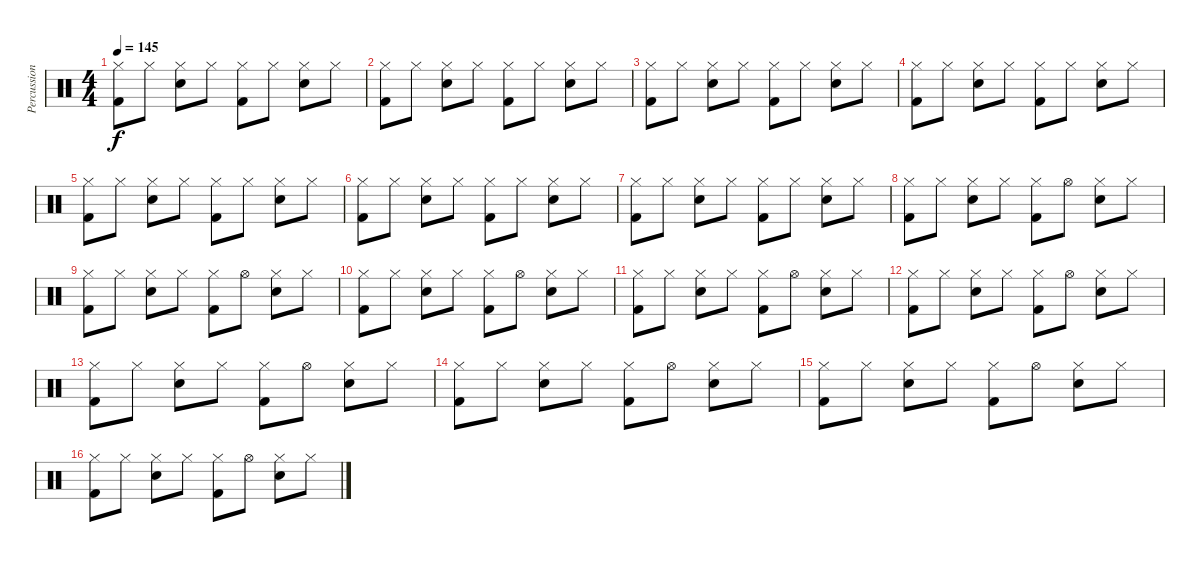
\track ("Percussion" "Percussion") {instrument percussion}
\staff {score}
\articulation defaults
\ts (4 4)
\tempo 145
\clef neutral
\ks c
("Hi-Hat (closed)" "Kick (hit) 2").8{dy f} "Hi-Hat (closed)".8 ("Hi-Hat (closed)" "Snare (hit) 2").8 "Hi-Hat (closed)".8 ("Hi-Hat (closed)" "Kick (hit) 2").8 "Hi-Hat (closed)".8 ("Hi-Hat (closed)" "Snare (hit) 2").8 "Hi-Hat (closed)".8 |
("Hi-Hat (closed)" "Kick (hit) 2").8 "Hi-Hat (closed)".8 ("Hi-Hat (closed)" "Snare (hit) 2").8 "Hi-Hat (closed)".8 ("Hi-Hat (closed)" "Kick (hit) 2").8 "Hi-Hat (closed)".8 ("Hi-Hat (closed)" "Snare (hit) 2").8 "Hi-Hat (closed)".8 |
("Hi-Hat (closed)" "Kick (hit) 2").8 "Hi-Hat (closed)".8 ("Hi-Hat (closed)" "Snare (hit) 2").8 "Hi-Hat (closed)".8 ("Hi-Hat (closed)" "Kick (hit) 2").8 "Hi-Hat (closed)".8 ("Hi-Hat (closed)" "Snare (hit) 2").8 "Hi-Hat (closed)".8 |
("Hi-Hat (closed)" "Kick (hit) 2").8 "Hi-Hat (closed)".8 ("Hi-Hat (closed)" "Snare (hit) 2").8 "Hi-Hat (closed)".8 ("Hi-Hat (closed)" "Kick (hit) 2").8 "Hi-Hat (closed)".8 ("Hi-Hat (closed)" "Snare (hit) 2").8 "Hi-Hat (closed)".8 |
("Hi-Hat (closed)" "Kick (hit) 2").8 "Hi-Hat (closed)".8 ("Hi-Hat (closed)" "Snare (hit) 2").8 "Hi-Hat (closed)".8 ("Hi-Hat (closed)" "Kick (hit) 2").8 "Hi-Hat (closed)".8 ("Hi-Hat (closed)" "Snare (hit) 2").8 "Hi-Hat (closed)".8 |
("Hi-Hat (closed)" "Kick (hit) 2").8 "Hi-Hat (closed)".8 ("Hi-Hat (closed)" "Snare (hit) 2").8 "Hi-Hat (closed)".8 ("Hi-Hat (closed)" "Kick (hit) 2").8 "Hi-Hat (closed)".8 ("Hi-Hat (closed)" "Snare (hit) 2").8 "Hi-Hat (closed)".8 |
("Hi-Hat (closed)" "Kick (hit) 2").8 "Hi-Hat (closed)".8 ("Hi-Hat (closed)" "Snare (hit) 2").8 "Hi-Hat (closed)".8 ("Hi-Hat (closed)" "Kick (hit) 2").8 "Hi-Hat (closed)".8 ("Hi-Hat (closed)" "Snare (hit) 2").8 "Hi-Hat (closed)".8 |
("Hi-Hat (closed)" "Kick (hit) 2").8 "Hi-Hat (closed)".8 ("Hi-Hat (closed)" "Snare (hit) 2").8 "Hi-Hat (closed)".8 ("Hi-Hat (closed)" "Kick (hit) 2").8 "Hi-Hat (open)".8 ("Hi-Hat (closed)" "Snare (hit) 2").8 "Hi-Hat (closed)".8 |
("Hi-Hat (closed)" "Kick (hit) 2").8 "Hi-Hat (closed)".8 ("Hi-Hat (closed)" "Snare (hit) 2").8 "Hi-Hat (closed)".8 ("Hi-Hat (closed)" "Kick (hit) 2").8 "Hi-Hat (open)".8 ("Hi-Hat (closed)" "Snare (hit) 2").8 "Hi-Hat (closed)".8 |
("Hi-Hat (closed)" "Kick (hit) 2").8 "Hi-Hat (closed)".8 ("Hi-Hat (closed)" "Snare (hit) 2").8 "Hi-Hat (closed)".8 ("Hi-Hat (closed)" "Kick (hit) 2").8 "Hi-Hat (open)".8 ("Hi-Hat (closed)" "Snare (hit) 2").8 "Hi-Hat (closed)".8 |
("Hi-Hat (closed)" "Kick (hit) 2").8 "Hi-Hat (closed)".8 ("Hi-Hat (closed)" "Snare (hit) 2").8 "Hi-Hat (closed)".8 ("Hi-Hat (closed)" "Kick (hit) 2").8 "Hi-Hat (open)".8 ("Hi-Hat (closed)" "Snare (hit) 2").8 "Hi-Hat (closed)".8 |
("Hi-Hat (closed)" "Kick (hit) 2").8 "Hi-Hat (closed)".8 ("Hi-Hat (closed)" "Snare (hit) 2").8 "Hi-Hat (closed)".8 ("Hi-Hat (closed)" "Kick (hit) 2").8 "Hi-Hat (open)".8 ("Hi-Hat (closed)" "Snare (hit) 2").8 "Hi-Hat (closed)".8 |
("Hi-Hat (closed)" "Kick (hit) 2").8 "Hi-Hat (closed)".8 ("Hi-Hat (closed)" "Snare (hit) 2").8 "Hi-Hat (closed)".8 ("Hi-Hat (closed)" "Kick (hit) 2").8 "Hi-Hat (open)".8 ("Hi-Hat (closed)" "Snare (hit) 2").8 "Hi-Hat (closed)".8 |
("Hi-Hat (closed)" "Kick (hit) 2").8 "Hi-Hat (closed)".8 ("Hi-Hat (closed)" "Snare (hit) 2").8 "Hi-Hat (closed)".8 ("Hi-Hat (closed)" "Kick (hit) 2").8 "Hi-Hat (open)".8 ("Hi-Hat (closed)" "Snare (hit) 2").8 "Hi-Hat (closed)".8 |
("Hi-Hat (closed)" "Kick (hit) 2").8 "Hi-Hat (closed)".8 ("Hi-Hat (closed)" "Snare (hit) 2").8 "Hi-Hat (closed)".8 ("Hi-Hat (closed)" "Kick (hit) 2").8 "Hi-Hat (open)".8 ("Hi-Hat (closed)" "Snare (hit) 2").8 "Hi-Hat (closed)".8 |
("Hi-Hat (closed)" "Kick (hit) 2").8 "Hi-Hat (closed)".8 ("Hi-Hat (closed)" "Snare (hit) 2").8 "Hi-Hat (closed)".8 ("Hi-Hat (closed)" "Kick (hit) 2").8 "Hi-Hat (open)".8 ("Hi-Hat (closed)" "Snare (hit) 2").8 "Hi-Hat (closed)".8
